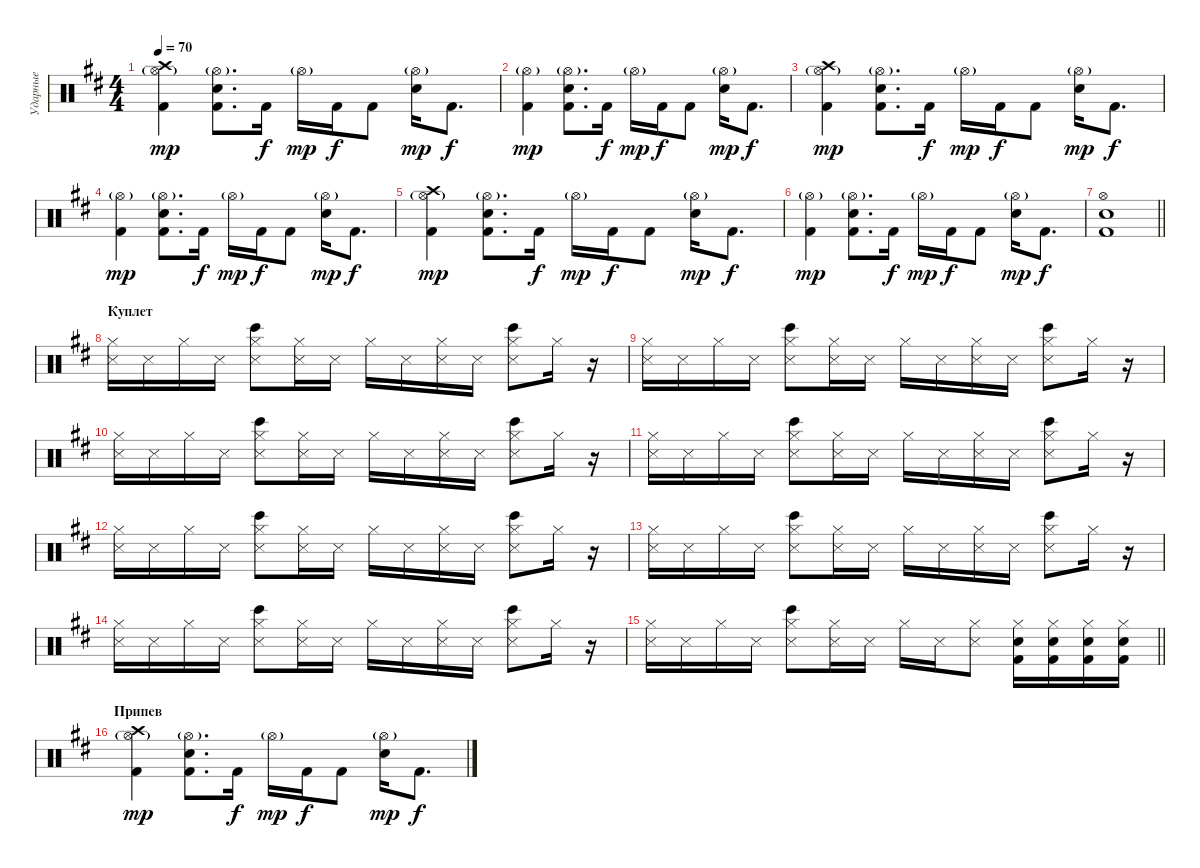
\track ("Ударные" "Ударные") {instrument percussion}
\staff {score}
\articulation defaults
\ts (4 4)
\tempo 70
\clef neutral
\ks bminor
("Crash high (hit)" "Hi-Hat (open)"{g} "Kick (hit) 2").4{dy mp} ("Hi-Hat (open)"{g} "Electric Snare (hit)" "Kick (hit) 2").8{d} "Kick (hit) 2".16{dy f} "Hi-Hat (open)"{g}.16{dy mp} "Kick (hit) 2".16{dy f} "Kick (hit) 2".8 ("Hi-Hat (open)"{g} "Electric Snare (hit)").16{dy mp} "Kick (hit) 2".8{d dy f} |
("Hi-Hat (open)"{g} "Kick (hit) 2").4{dy mp} ("Hi-Hat (open)"{g} "Electric Snare (hit)" "Kick (hit) 2").8{d} "Kick (hit) 2".16{dy f} "Hi-Hat (open)"{g}.16{dy mp} "Kick (hit) 2".16{dy f} "Kick (hit) 2".8 ("Hi-Hat (open)"{g} "Electric Snare (hit)").16{dy mp} "Kick (hit) 2".8{d dy f} |
("Crash high (hit)" "Hi-Hat (open)"{g} "Kick (hit) 2").4{dy mp} ("Hi-Hat (open)"{g} "Electric Snare (hit)" "Kick (hit) 2").8{d} "Kick (hit) 2".16{dy f} "Hi-Hat (open)"{g}.16{dy mp} "Kick (hit) 2".16{dy f} "Kick (hit) 2".8 ("Hi-Hat (open)"{g} "Electric Snare (hit)").16{dy mp} "Kick (hit) 2".8{d dy f} |
("Hi-Hat (open)"{g} "Kick (hit) 2").4{dy mp} ("Hi-Hat (open)"{g} "Electric Snare (hit)" "Kick (hit) 2").8{d} "Kick (hit) 2".16{dy f} "Hi-Hat (open)"{g}.16{dy mp} "Kick (hit) 2".16{dy f} "Kick (hit) 2".8 ("Hi-Hat (open)"{g} "Electric Snare (hit)").16{dy mp} "Kick (hit) 2".8{d dy f} |
("Crash high (hit)" "Hi-Hat (open)"{g} "Kick (hit) 2").4{dy mp} ("Hi-Hat (open)"{g} "Electric Snare (hit)" "Kick (hit) 2").8{d} "Kick (hit) 2".16{dy f} "Hi-Hat (open)"{g}.16{dy mp} "Kick (hit) 2".16{dy f} "Kick (hit) 2".8 ("Hi-Hat (open)"{g} "Electric Snare (hit)").16{dy mp} "Kick (hit) 2".8{d dy f} |
("Hi-Hat (open)"{g} "Kick (hit) 2").4{dy mp} ("Hi-Hat (open)"{g} "Electric Snare (hit)" "Kick (hit) 2").8{d} "Kick (hit) 2".16{dy f} "Hi-Hat (open)"{g}.16{dy mp} "Kick (hit) 2".16{dy f} "Kick (hit) 2".8 ("Hi-Hat (open)"{g} "Electric Snare (hit)").16{dy mp} "Kick (hit) 2".8{d dy f} |
\barLineRight lightlight
("Hi-Hat (open)" "Electric Snare (hit)" "Kick (hit) 2").1 |
\section ("" "Куплет")
("Hi-Hat (closed)" "Snare (side stick) 3").16 "Snare (side stick) 3".16 "Hi-Hat (closed)".16 "Snare (side stick) 3".16 ("Hi-Hat (closed)" "Bongo High (hit)" "Snare (side stick) 3").8 ("Hi-Hat (closed)" "Snare (side stick) 3").16 "Snare (side stick) 3".16 "Hi-Hat (closed)".16 "Snare (side stick) 3".16 ("Hi-Hat (closed)" "Snare (side stick) 3").16 "Snare (side stick) 3".16 ("Hi-Hat (closed)" "Bongo High (hit)" "Snare (side stick) 3").8 "Hi-Hat (closed)".16 r.16 |
("Hi-Hat (closed)" "Snare (side stick) 3").16 "Snare (side stick) 3".16 "Hi-Hat (closed)".16 "Snare (side stick) 3".16 ("Hi-Hat (closed)" "Bongo High (hit)" "Snare (side stick) 3").8 ("Hi-Hat (closed)" "Snare (side stick) 3").16 "Snare (side stick) 3".16 "Hi-Hat (closed)".16 "Snare (side stick) 3".16 ("Hi-Hat (closed)" "Snare (side stick) 3").16 "Snare (side stick) 3".16 ("Hi-Hat (closed)" "Bongo High (hit)" "Snare (side stick) 3").8 "Hi-Hat (closed)".16 r.16 |
("Hi-Hat (closed)" "Snare (side stick) 3").16 "Snare (side stick) 3".16 "Hi-Hat (closed)".16 "Snare (side stick) 3".16 ("Hi-Hat (closed)" "Bongo High (hit)" "Snare (side stick) 3").8 ("Hi-Hat (closed)" "Snare (side stick) 3").16 "Snare (side stick) 3".16 "Hi-Hat (closed)".16 "Snare (side stick) 3".16 ("Hi-Hat (closed)" "Snare (side stick) 3").16 "Snare (side stick) 3".16 ("Hi-Hat (closed)" "Bongo High (hit)" "Snare (side stick) 3").8 "Hi-Hat (closed)".16 r.16 |
("Hi-Hat (closed)" "Snare (side stick) 3").16 "Snare (side stick) 3".16 "Hi-Hat (closed)".16 "Snare (side stick) 3".16 ("Hi-Hat (closed)" "Bongo High (hit)" "Snare (side stick) 3").8 ("Hi-Hat (closed)" "Snare (side stick) 3").16 "Snare (side stick) 3".16 "Hi-Hat (closed)".16 "Snare (side stick) 3".16 ("Hi-Hat (closed)" "Snare (side stick) 3").16 "Snare (side stick) 3".16 ("Hi-Hat (closed)" "Bongo High (hit)" "Snare (side stick) 3").8 "Hi-Hat (closed)".16 r.16 |
("Hi-Hat (closed)" "Snare (side stick) 3").16 "Snare (side stick) 3".16 "Hi-Hat (closed)".16 "Snare (side stick) 3".16 ("Hi-Hat (closed)" "Bongo High (hit)" "Snare (side stick) 3").8 ("Hi-Hat (closed)" "Snare (side stick) 3").16 "Snare (side stick) 3".16 "Hi-Hat (closed)".16 "Snare (side stick) 3".16 ("Hi-Hat (closed)" "Snare (side stick) 3").16 "Snare (side stick) 3".16 ("Hi-Hat (closed)" "Bongo High (hit)" "Snare (side stick) 3").8 "Hi-Hat (closed)".16 r.16 |
("Hi-Hat (closed)" "Snare (side stick) 3").16 "Snare (side stick) 3".16 "Hi-Hat (closed)".16 "Snare (side stick) 3".16 ("Hi-Hat (closed)" "Bongo High (hit)" "Snare (side stick) 3").8 ("Hi-Hat (closed)" "Snare (side stick) 3").16 "Snare (side stick) 3".16 "Hi-Hat (closed)".16 "Snare (side stick) 3".16 ("Hi-Hat (closed)" "Snare (side stick) 3").16 "Snare (side stick) 3".16 ("Hi-Hat (closed)" "Bongo High (hit)" "Snare (side stick) 3").8 "Hi-Hat (closed)".16 r.16 |
("Hi-Hat (closed)" "Snare (side stick) 3").16 "Snare (side stick) 3".16 "Hi-Hat (closed)".16 "Snare (side stick) 3".16 ("Hi-Hat (closed)" "Bongo High (hit)" "Snare (side stick) 3").8 ("Hi-Hat (closed)" "Snare (side stick) 3").16 "Snare (side stick) 3".16 "Hi-Hat (closed)".16 "Snare (side stick) 3".16 ("Hi-Hat (closed)" "Snare (side stick) 3").16 "Snare (side stick) 3".16 ("Hi-Hat (closed)" "Bongo High (hit)" "Snare (side stick) 3").8 "Hi-Hat (closed)".16 r.16 |
\barLineRight lightlight
("Hi-Hat (closed)" "Snare (side stick) 3").16 "Snare (side stick) 3".16 "Hi-Hat (closed)".16 "Snare (side stick) 3".16 ("Hi-Hat (closed)" "Bongo High (hit)" "Snare (side stick) 3").8 ("Hi-Hat (closed)" "Snare (side stick) 3").16 "Snare (side stick) 3".16 "Hi-Hat (closed)".16 "Snare (side stick) 3".16 ("Hi-Hat (closed)" "Snare (side stick) 3").8 ("Hi-Hat (closed)" "Electric Snare (hit)" "Kick (hit) 2").16 ("Hi-Hat (closed)" "Electric Snare (hit)" "Kick (hit) 2").16 ("Hi-Hat (closed)" "Electric Snare (hit)" "Kick (hit) 2").16 ("Hi-Hat (closed)" "Electric Snare (hit)" "Kick (hit) 2").16 |
\section ("" "Припев")
("Crash high (hit)" "Hi-Hat (open)"{g} "Kick (hit) 2").4{dy mp} ("Hi-Hat (open)"{g} "Electric Snare (hit)" "Kick (hit) 2").8{d} "Kick (hit) 2".16{dy f} "Hi-Hat (open)"{g}.16{dy mp} "Kick (hit) 2".16{dy f} "Kick (hit) 2".8 ("Hi-Hat (open)"{g} "Electric Snare (hit)").16{dy mp} "Kick (hit) 2".8{d dy f}
